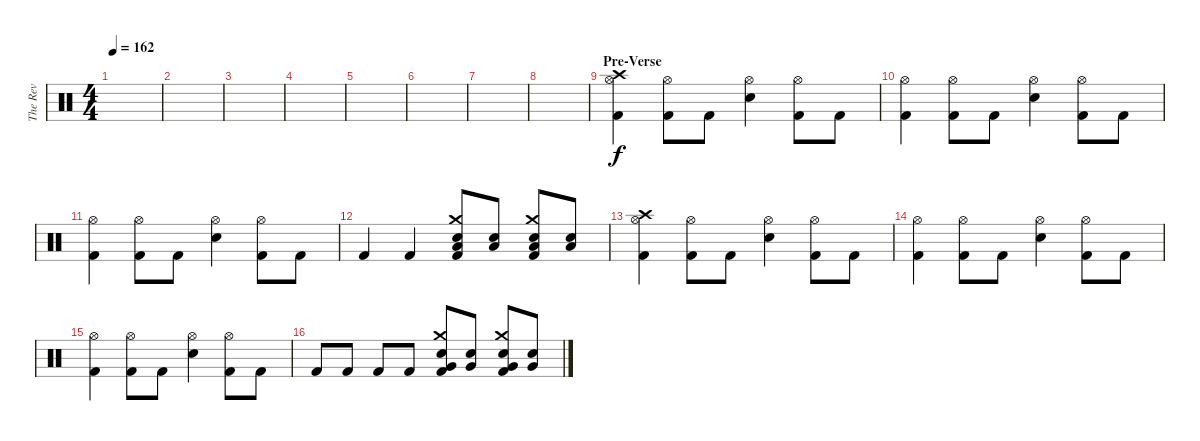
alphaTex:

\track ("The Rev" "The Rev") {instrument percussion}
\staff {score}
\articulation defaults
\ts (4 4)
\tempo 162
\clef neutral
\ks c
|
|
|
|
|
|
|
|
\section ("" "Pre-Verse")
("Hi-Hat (open)" "Crash high (hit)" "Kick (hit) 2").4 ("Hi-Hat (open)" "Kick (hit) 2").8 "Kick (hit) 2".8 ("Hi-Hat (open)" "Electric Snare (hit)").4 ("Hi-Hat (open)" "Kick (hit) 2").8 "Kick (hit) 2".8 |
("Hi-Hat (open)" "Kick (hit) 2").4 ("Hi-Hat (open)" "Kick (hit) 2").8 "Kick (hit) 2".8 ("Hi-Hat (open)" "Electric Snare (hit)").4 ("Hi-Hat (open)" "Kick (hit) 2").8 "Kick (hit) 2".8 |
("Hi-Hat (open)" "Kick (hit) 2").4 ("Hi-Hat (open)" "Kick (hit) 2").8 "Kick (hit) 2".8 ("Hi-Hat (open)" "Electric Snare (hit)").4 ("Hi-Hat (open)" "Kick (hit) 2").8 "Kick (hit) 2".8 |
"Kick (hit) 2".4 "Kick (hit) 2".4 ("Crash medium (hit)" "Low Floor Tom (hit)" "Electric Snare (hit)" "Kick (hit) 2").8 ("Low Floor Tom (hit)" "Electric Snare (hit)").8 ("Crash medium (hit)" "Low Floor Tom (hit)" "Electric Snare (hit)" "Kick (hit) 2").8 ("Low Floor Tom (hit)" "Electric Snare (hit)").8 |
("Hi-Hat (open)" "Crash high (hit)" "Kick (hit) 2").4 ("Hi-Hat (open)" "Kick (hit) 2").8 "Kick (hit) 2".8 ("Hi-Hat (open)" "Electric Snare (hit)").4 ("Hi-Hat (open)" "Kick (hit) 2").8 "Kick (hit) 2".8 |
("Hi-Hat (open)" "Kick (hit) 2").4 ("Hi-Hat (open)" "Kick (hit) 2").8 "Kick (hit) 2".8 ("Hi-Hat (open)" "Electric Snare (hit)").4 ("Hi-Hat (open)" "Kick (hit) 2").8 "Kick (hit) 2".8 |
("Hi-Hat (open)" "Kick (hit) 2").4 ("Hi-Hat (open)" "Kick (hit) 2").8 "Kick (hit) 2".8 ("Hi-Hat (open)" "Electric Snare (hit)").4 ("Hi-Hat (open)" "Kick (hit) 2").8 "Kick (hit) 2".8 |
"Kick (hit) 2".8 "Kick (hit) 2".8 "Kick (hit) 2".8 "Kick (hit) 2".8 ("Crash medium (hit)" "Very Low Tom (hit)" "Electric Snare (hit)" "Kick (hit) 2").8 ("Very Low Tom (hit)" "Electric Snare (hit)").8 ("Crash medium (hit)" "Very Low Tom (hit)" "Electric Snare (hit)" "Kick (hit) 2").8 ("Very Low Tom (hit)" "Electric Snare (hit)").8
